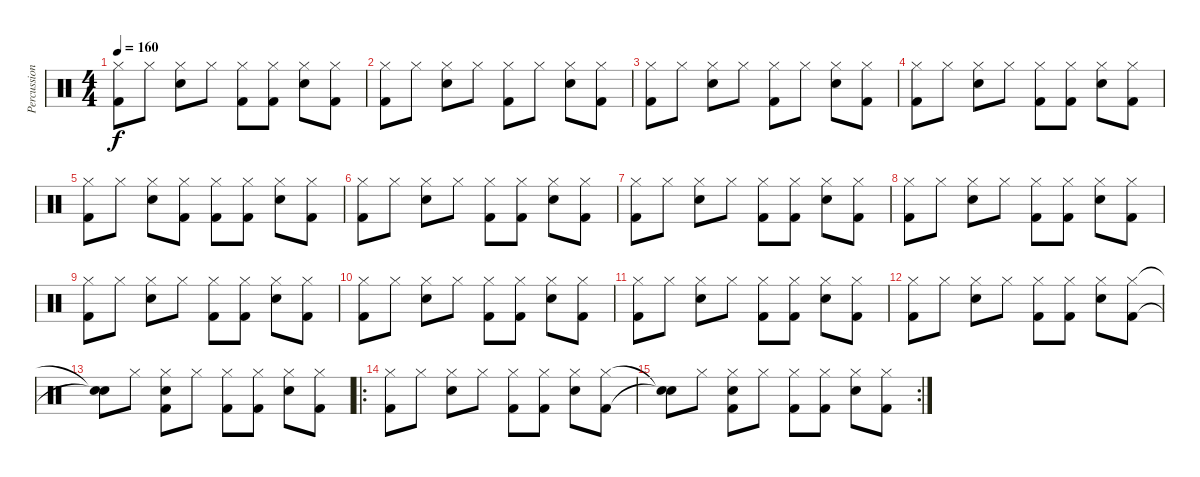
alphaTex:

\track ("Percussion" "Percussion") {instrument percussion}
\staff {score}
\articulation defaults
\ts (4 4)
\tempo 160
\clef neutral
\ks c
("Hi-Hat (closed)" "Kick (hit) 2").8{dy f} "Hi-Hat (closed)".8 ("Hi-Hat (closed)" "Snare (hit) 2").8 "Hi-Hat (closed)".8 ("Hi-Hat (closed)" "Kick (hit) 2").8 ("Hi-Hat (closed)" "Kick (hit) 2").8 ("Hi-Hat (closed)" "Snare (hit) 2").8 ("Hi-Hat (closed)" "Kick (hit) 2").8 |
("Hi-Hat (closed)" "Kick (hit) 2").8 "Hi-Hat (closed)".8 ("Hi-Hat (closed)" "Snare (hit) 2").8 "Hi-Hat (closed)".8 ("Hi-Hat (closed)" "Kick (hit) 2").8 "Hi-Hat (closed)".8 ("Hi-Hat (closed)" "Snare (hit) 2").8 ("Hi-Hat (closed)" "Kick (hit) 2").8 |
("Hi-Hat (closed)" "Kick (hit) 2").8 "Hi-Hat (closed)".8 ("Hi-Hat (closed)" "Snare (hit) 2").8 "Hi-Hat (closed)".8 ("Hi-Hat (closed)" "Kick (hit) 2").8 "Hi-Hat (closed)".8 ("Hi-Hat (closed)" "Snare (hit) 2").8 ("Hi-Hat (closed)" "Kick (hit) 2").8 |
("Hi-Hat (closed)" "Kick (hit) 2").8 "Hi-Hat (closed)".8 ("Hi-Hat (closed)" "Snare (hit) 2").8 "Hi-Hat (closed)".8 ("Hi-Hat (closed)" "Kick (hit) 2").8 ("Hi-Hat (closed)" "Kick (hit) 2").8 ("Hi-Hat (closed)" "Snare (hit) 2").8 ("Hi-Hat (closed)" "Kick (hit) 2").8 |
("Hi-Hat (closed)" "Kick (hit) 2").8 "Hi-Hat (closed)".8 ("Hi-Hat (closed)" "Snare (hit) 2").8 ("Hi-Hat (closed)" "Kick (hit) 2").8 ("Hi-Hat (closed)" "Kick (hit) 2").8 ("Hi-Hat (closed)" "Kick (hit) 2").8 ("Hi-Hat (closed)" "Snare (hit) 2").8 ("Hi-Hat (closed)" "Kick (hit) 2").8 |
("Hi-Hat (closed)" "Kick (hit) 2").8 "Hi-Hat (closed)".8 ("Hi-Hat (closed)" "Snare (hit) 2").8 "Hi-Hat (closed)".8 ("Hi-Hat (closed)" "Kick (hit) 2").8 ("Hi-Hat (closed)" "Kick (hit) 2").8 ("Hi-Hat (closed)" "Snare (hit) 2").8 ("Hi-Hat (closed)" "Kick (hit) 2").8 |
("Hi-Hat (closed)" "Kick (hit) 2").8 "Hi-Hat (closed)".8 ("Hi-Hat (closed)" "Snare (hit) 2").8 "Hi-Hat (closed)".8 ("Hi-Hat (closed)" "Kick (hit) 2").8 ("Hi-Hat (closed)" "Kick (hit) 2").8 ("Hi-Hat (closed)" "Snare (hit) 2").8 ("Hi-Hat (closed)" "Kick (hit) 2").8 |
("Hi-Hat (closed)" "Kick (hit) 2").8 "Hi-Hat (closed)".8 ("Hi-Hat (closed)" "Snare (hit) 2").8 "Hi-Hat (closed)".8 ("Hi-Hat (closed)" "Kick (hit) 2").8 ("Hi-Hat (closed)" "Kick (hit) 2").8 ("Hi-Hat (closed)" "Snare (hit) 2").8 ("Hi-Hat (closed)" "Kick (hit) 2").8 |
("Hi-Hat (closed)" "Kick (hit) 2").8 "Hi-Hat (closed)".8 ("Hi-Hat (closed)" "Snare (hit) 2").8 "Hi-Hat (closed)".8 ("Hi-Hat (closed)" "Kick (hit) 2").8 ("Hi-Hat (closed)" "Kick (hit) 2").8 ("Hi-Hat (closed)" "Snare (hit) 2").8 ("Hi-Hat (closed)" "Kick (hit) 2").8 |
("Hi-Hat (closed)" "Kick (hit) 2").8 "Hi-Hat (closed)".8 ("Hi-Hat (closed)" "Snare (hit) 2").8 "Hi-Hat (closed)".8 ("Hi-Hat (closed)" "Kick (hit) 2").8 ("Hi-Hat (closed)" "Kick (hit) 2").8 ("Hi-Hat (closed)" "Snare (hit) 2").8 ("Hi-Hat (closed)" "Kick (hit) 2").8 |
("Hi-Hat (closed)" "Kick (hit) 2").8 "Hi-Hat (closed)".8 ("Hi-Hat (closed)" "Snare (hit) 2").8 "Hi-Hat (closed)".8 ("Hi-Hat (closed)" "Kick (hit) 2").8 ("Hi-Hat (closed)" "Kick (hit) 2").8 ("Hi-Hat (closed)" "Snare (hit) 2").8 ("Hi-Hat (closed)" "Kick (hit) 2").8 |
("Hi-Hat (closed)" "Kick (hit) 2").8 "Hi-Hat (closed)".8 ("Hi-Hat (closed)" "Snare (hit) 2").8 "Hi-Hat (closed)".8 ("Hi-Hat (closed)" "Kick (hit) 2").8 ("Hi-Hat (closed)" "Kick (hit) 2").8 ("Hi-Hat (closed)" "Snare (hit) 2").8 ("Hi-Hat (closed)" "Kick (hit) 2").8 |
("Snare (hit)"{t} "Snare (hit)"{t}).8 "Hi-Hat (closed)".8 ("Hi-Hat (closed)" "Snare (hit) 2" "Kick (hit) 2").8 "Hi-Hat (closed)".8 ("Hi-Hat (closed)" "Kick (hit) 2").8 ("Hi-Hat (closed)" "Kick (hit) 2").8 ("Hi-Hat (closed)" "Snare (hit) 2").8 ("Hi-Hat (closed)" "Kick (hit) 2").8 |
\ro
("Hi-Hat (closed)" "Kick (hit) 2").8 "Hi-Hat (closed)".8 ("Hi-Hat (closed)" "Snare (hit) 2").8 "Hi-Hat (closed)".8 ("Hi-Hat (closed)" "Kick (hit) 2").8 ("Hi-Hat (closed)" "Kick (hit) 2").8 ("Hi-Hat (closed)" "Snare (hit) 2").8 ("Hi-Hat (closed)" "Kick (hit) 2").8 |
\rc 2
("Snare (hit)"{t} "Snare (hit)"{t}).8 "Hi-Hat (closed)".8 ("Hi-Hat (closed)" "Snare (hit) 2" "Kick (hit) 2").8 "Hi-Hat (closed)".8 ("Hi-Hat (closed)" "Kick (hit) 2").8 ("Hi-Hat (closed)" "Kick (hit) 2").8 ("Hi-Hat (closed)" "Snare (hit) 2").8 ("Hi-Hat (closed)" "Kick (hit) 2").8
